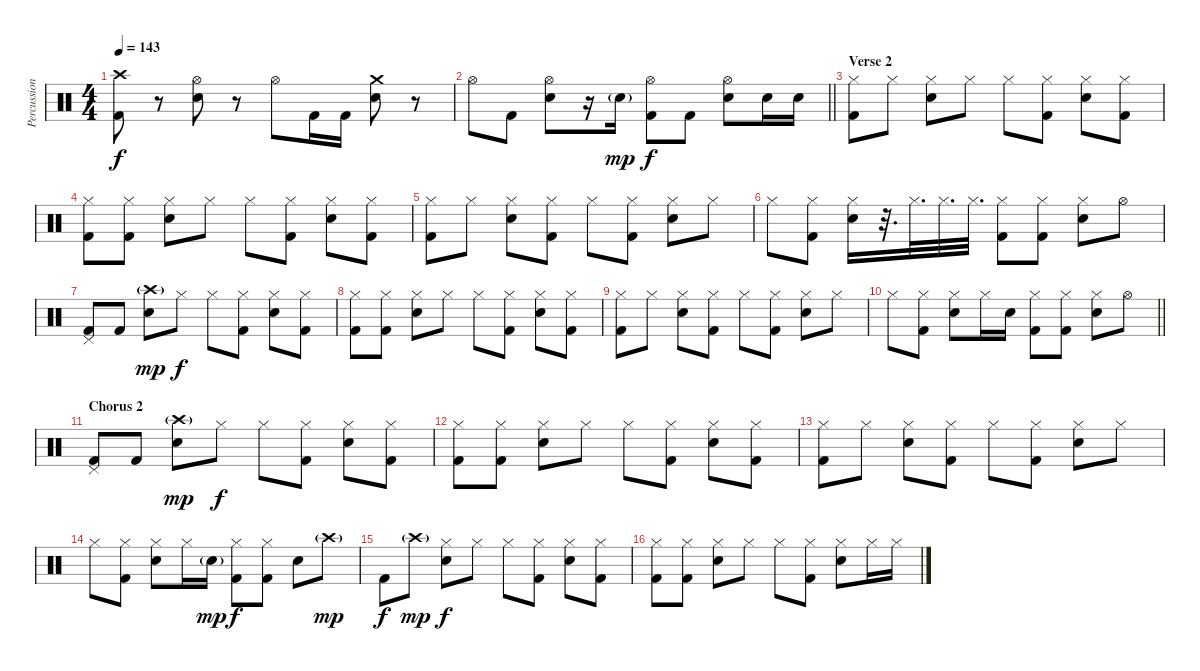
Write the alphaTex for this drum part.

\track ("Percussion" "Percussion") {instrument percussion}
\staff {score}
\articulation defaults
\ts (4 4)
\tempo 143
\clef neutral
\ks c
("Crash high (hit)" "Kick (hit) 2").8{dy f} r.8 ("Hi-Hat (open)" "Snare (hit) 2").8 r.8 "Hi-Hat (open)".8 "Kick (hit) 2".16 "Kick (hit) 2".16 ("Crash medium (hit)" "Snare (hit) 2").8 r.8 |
\barLineRight lightlight "Hi-Hat (open)".8 "Kick (hit) 2".8
("Hi-Hat (open)" "Snare (hit) 2").8 r.16 "Snare (hit) 2"{g}.16{dy mp} ("Hi-Hat (open)" "Kick (hit) 2").8{dy f} "Kick (hit) 2".8 ("Hi-Hat (open)" "Snare (hit) 2").8 "Snare (hit) 2".16 "Snare (hit) 2".16 |
\section ("" "Verse 2")
("Hi-Hat (closed)" "Kick (hit) 2").8 "Hi-Hat (closed)".8 ("Hi-Hat (closed)" "Snare (hit) 2").8 "Hi-Hat (closed)".8 "Hi-Hat (closed)".8 ("Hi-Hat (closed)" "Kick (hit) 2").8 ("Hi-Hat (closed)" "Snare (hit) 2").8 ("Hi-Hat (closed)" "Kick (hit) 2").8 |
("Hi-Hat (closed)" "Kick (hit) 2").8 ("Hi-Hat (closed)" "Kick (hit) 2").8 ("Hi-Hat (closed)" "Snare (hit) 2").8 "Hi-Hat (closed)".8 "Hi-Hat (closed)".8 ("Hi-Hat (closed)" "Kick (hit) 2").8 ("Hi-Hat (closed)" "Snare (hit) 2").8 ("Hi-Hat (closed)" "Kick (hit) 2").8 |
("Hi-Hat (closed)" "Kick (hit) 2").8 "Hi-Hat (closed)".8 ("Hi-Hat (closed)" "Snare (hit) 2").8 ("Hi-Hat (closed)" "Kick (hit) 2").8 "Hi-Hat (closed)".8 ("Hi-Hat (closed)" "Kick (hit) 2").8 ("Hi-Hat (closed)" "Snare (hit) 2").8 "Hi-Hat (closed)".8 |
"Hi-Hat (closed)".8 ("Hi-Hat (closed)" "Kick (hit) 2").8 ("Hi-Hat (closed)" "Snare (hit) 2").16 r.32{d} "Hi-Hat (closed)".32{d} "Hi-Hat (closed)".32{d} "Hi-Hat (closed)".32{d} ("Hi-Hat (closed)" "Kick (hit) 2").8 ("Hi-Hat (closed)" "Kick (hit) 2").8 ("Hi-Hat (closed)" "Snare (hit) 2").8 "Hi-Hat (open)".8 |
("Pedal Hi-Hat (hit)" "Kick (hit) 2").8 "Kick (hit) 2".8 ("Crash high (hit)"{g} "Snare (hit) 2").8{dy mp} "Hi-Hat (closed)".8{dy f} "Hi-Hat (closed)".8 ("Hi-Hat (closed)" "Kick (hit) 2").8 ("Hi-Hat (closed)" "Snare (hit) 2").8 ("Hi-Hat (closed)" "Kick (hit) 2").8 |
("Hi-Hat (closed)" "Kick (hit) 2").8 ("Hi-Hat (closed)" "Kick (hit) 2").8 ("Hi-Hat (closed)" "Snare (hit) 2").8 "Hi-Hat (closed)".8 "Hi-Hat (closed)".8 ("Hi-Hat (closed)" "Kick (hit) 2").8 ("Hi-Hat (closed)" "Snare (hit) 2").8 ("Hi-Hat (closed)" "Kick (hit) 2").8 |
("Hi-Hat (closed)" "Kick (hit) 2").8 "Hi-Hat (closed)".8 ("Hi-Hat (closed)" "Snare (hit) 2").8 ("Hi-Hat (closed)" "Kick (hit) 2").8 "Hi-Hat (closed)".8 ("Hi-Hat (closed)" "Kick (hit) 2").8 ("Hi-Hat (closed)" "Snare (hit) 2").8 "Hi-Hat (closed)".8 |
\barLineRight lightlight "Hi-Hat (closed)".8
("Hi-Hat (closed)" "Kick (hit) 2").8 ("Hi-Hat (closed)" "Snare (hit) 2").8 "Hi-Hat (closed)".16 "Snare (hit) 2".16 ("Hi-Hat (closed)" "Kick (hit) 2").8 ("Hi-Hat (closed)" "Kick (hit) 2").8 ("Hi-Hat (closed)" "Snare (hit) 2").8 "Hi-Hat (open)".8 |
\section ("" "Chorus 2")
("Pedal Hi-Hat (hit)" "Kick (hit) 2").8 "Kick (hit) 2".8 ("Crash high (hit)"{g} "Snare (hit) 2").8{dy mp} "Hi-Hat (closed)".8{dy f} "Hi-Hat (closed)".8 ("Hi-Hat (closed)" "Kick (hit) 2").8 ("Hi-Hat (closed)" "Snare (hit) 2").8 ("Hi-Hat (closed)" "Kick (hit) 2").8 |
("Hi-Hat (closed)" "Kick (hit) 2").8 ("Hi-Hat (closed)" "Kick (hit) 2").8 ("Hi-Hat (closed)" "Snare (hit) 2").8 "Hi-Hat (closed)".8 "Hi-Hat (closed)".8 ("Hi-Hat (closed)" "Kick (hit) 2").8 ("Hi-Hat (closed)" "Snare (hit) 2").8 ("Hi-Hat (closed)" "Kick (hit) 2").8 |
("Hi-Hat (closed)" "Kick (hit) 2").8 "Hi-Hat (closed)".8 ("Hi-Hat (closed)" "Snare (hit) 2").8 ("Hi-Hat (closed)" "Kick (hit) 2").8 "Hi-Hat (closed)".8 ("Hi-Hat (closed)" "Kick (hit) 2").8 ("Hi-Hat (closed)" "Snare (hit) 2").8 "Hi-Hat (closed)".8 |
"Hi-Hat (closed)".8 ("Hi-Hat (closed)" "Kick (hit) 2").8 ("Hi-Hat (closed)" "Snare (hit) 2").8 "Hi-Hat (closed)".16 "Snare (hit) 2"{g}.16{dy mp} ("Hi-Hat (closed)" "Kick (hit) 2").8{dy f} ("Hi-Hat (closed)" "Kick (hit) 2").8 "Snare (hit) 2".8 "Crash high (hit)"{g}.8{dy mp} |
"Kick (hit) 2".8{dy f} "Crash high (hit)"{g}.8{dy mp} ("Hi-Hat (closed)" "Snare (hit) 2").8{dy f} "Hi-Hat (closed)".8 "Hi-Hat (closed)".8 ("Hi-Hat (closed)" "Kick (hit) 2").8 ("Hi-Hat (closed)" "Snare (hit) 2").8 ("Hi-Hat (closed)" "Kick (hit) 2").8 |
("Hi-Hat (closed)" "Kick (hit) 2").8 ("Hi-Hat (closed)" "Kick (hit) 2").8 ("Hi-Hat (closed)" "Snare (hit) 2").8 "Hi-Hat (closed)".8 "Hi-Hat (closed)".8 ("Hi-Hat (closed)" "Kick (hit) 2").8 ("Hi-Hat (closed)" "Snare (hit) 2").8 "Hi-Hat (closed)".16 "Hi-Hat (closed)".16
